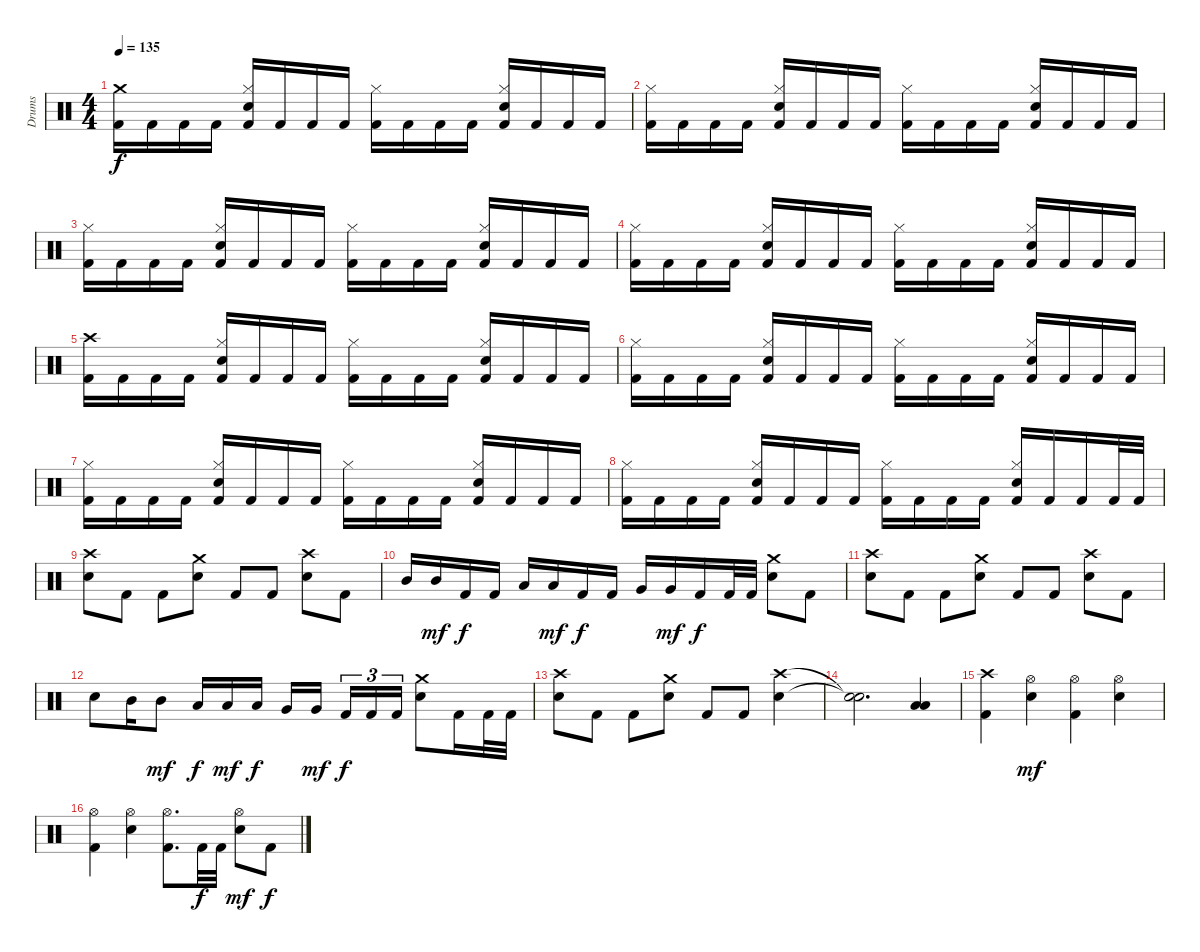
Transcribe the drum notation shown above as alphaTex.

\track ("Drums" "Drums") {instrument percussion}
\staff {score}
\articulation defaults
\ts (4 4)
\tempo 135
\clef neutral
\ks c
("Kick (hit) 2" "Crash medium (hit)").16{dy f} "Kick (hit) 2".16 "Kick (hit) 2".16 "Kick (hit) 2".16 ("Kick (hit) 2" "Hi-Hat (closed)" "Electric Snare (hit)").16 "Kick (hit) 2".16 "Kick (hit) 2".16 "Kick (hit) 2".16 ("Kick (hit) 2" "Hi-Hat (closed)").16 "Kick (hit) 2".16 "Kick (hit) 2".16 "Kick (hit) 2".16 ("Kick (hit) 2" "Hi-Hat (closed)" "Electric Snare (hit)").16 "Kick (hit) 2".16 "Kick (hit) 2".16 "Kick (hit) 2".16 |
("Kick (hit) 2" "Hi-Hat (closed)").16 "Kick (hit) 2".16 "Kick (hit) 2".16 "Kick (hit) 2".16 ("Kick (hit) 2" "Hi-Hat (closed)" "Electric Snare (hit)").16 "Kick (hit) 2".16 "Kick (hit) 2".16 "Kick (hit) 2".16 ("Kick (hit) 2" "Hi-Hat (closed)").16 "Kick (hit) 2".16 "Kick (hit) 2".16 "Kick (hit) 2".16 ("Kick (hit) 2" "Hi-Hat (closed)" "Electric Snare (hit)").16 "Kick (hit) 2".16 "Kick (hit) 2".16 "Kick (hit) 2".16 |
("Kick (hit) 2" "Hi-Hat (closed)").16 "Kick (hit) 2".16 "Kick (hit) 2".16 "Kick (hit) 2".16 ("Kick (hit) 2" "Hi-Hat (closed)" "Electric Snare (hit)").16 "Kick (hit) 2".16 "Kick (hit) 2".16 "Kick (hit) 2".16 ("Kick (hit) 2" "Hi-Hat (closed)").16 "Kick (hit) 2".16 "Kick (hit) 2".16 "Kick (hit) 2".16 ("Kick (hit) 2" "Hi-Hat (closed)" "Electric Snare (hit)").16 "Kick (hit) 2".16 "Kick (hit) 2".16 "Kick (hit) 2".16 |
("Kick (hit) 2" "Hi-Hat (closed)").16 "Kick (hit) 2".16 "Kick (hit) 2".16 "Kick (hit) 2".16 ("Kick (hit) 2" "Hi-Hat (closed)" "Electric Snare (hit)").16 "Kick (hit) 2".16 "Kick (hit) 2".16 "Kick (hit) 2".16 ("Kick (hit) 2" "Hi-Hat (closed)").16 "Kick (hit) 2".16 "Kick (hit) 2".16 "Kick (hit) 2".16 ("Kick (hit) 2" "Hi-Hat (closed)" "Electric Snare (hit)").16 "Kick (hit) 2".16 "Kick (hit) 2".16 "Kick (hit) 2".16 |
("Kick (hit) 2" "Crash high (hit)").16 "Kick (hit) 2".16 "Kick (hit) 2".16 "Kick (hit) 2".16 ("Kick (hit) 2" "Hi-Hat (closed)" "Electric Snare (hit)").16 "Kick (hit) 2".16 "Kick (hit) 2".16 "Kick (hit) 2".16 ("Kick (hit) 2" "Hi-Hat (closed)").16 "Kick (hit) 2".16 "Kick (hit) 2".16 "Kick (hit) 2".16 ("Kick (hit) 2" "Hi-Hat (closed)" "Electric Snare (hit)").16 "Kick (hit) 2".16 "Kick (hit) 2".16 "Kick (hit) 2".16 |
("Kick (hit) 2" "Hi-Hat (closed)").16 "Kick (hit) 2".16 "Kick (hit) 2".16 "Kick (hit) 2".16 ("Kick (hit) 2" "Hi-Hat (closed)" "Electric Snare (hit)").16 "Kick (hit) 2".16 "Kick (hit) 2".16 "Kick (hit) 2".16 ("Kick (hit) 2" "Hi-Hat (closed)").16 "Kick (hit) 2".16 "Kick (hit) 2".16 "Kick (hit) 2".16 ("Kick (hit) 2" "Hi-Hat (closed)" "Electric Snare (hit)").16 "Kick (hit) 2".16 "Kick (hit) 2".16 "Kick (hit) 2".16 |
("Kick (hit) 2" "Hi-Hat (closed)").16 "Kick (hit) 2".16 "Kick (hit) 2".16 "Kick (hit) 2".16 ("Kick (hit) 2" "Hi-Hat (closed)" "Electric Snare (hit)").16 "Kick (hit) 2".16 "Kick (hit) 2".16 "Kick (hit) 2".16 ("Kick (hit) 2" "Hi-Hat (closed)").16 "Kick (hit) 2".16 "Kick (hit) 2".16 "Kick (hit) 2".16 ("Kick (hit) 2" "Hi-Hat (closed)" "Electric Snare (hit)").16 "Kick (hit) 2".16 "Kick (hit) 2".16 "Kick (hit) 2".16 |
("Kick (hit) 2" "Hi-Hat (closed)").16 "Kick (hit) 2".16 "Kick (hit) 2".16 "Kick (hit) 2".16 ("Kick (hit) 2" "Hi-Hat (closed)" "Electric Snare (hit)").16 "Kick (hit) 2".16 "Kick (hit) 2".16 "Kick (hit) 2".16 ("Kick (hit) 2" "Hi-Hat (closed)").16 "Kick (hit) 2".16 "Kick (hit) 2".16 "Kick (hit) 2".16 ("Kick (hit) 2" "Hi-Hat (closed)" "Electric Snare (hit)").16 "Kick (hit) 2".16 "Kick (hit) 2".16 "Kick (hit) 2".32 "Kick (hit) 2".32 |
("Crash high (hit)" "Electric Snare (hit)").8 "Kick (hit) 2".8 "Kick (hit) 2".8 ("Crash medium (hit)" "Electric Snare (hit)").8 "Kick (hit) 2".8 "Kick (hit) 2".8 ("Crash high (hit)" "Electric Snare (hit)").8 "Kick (hit) 2".8 |
"Mid Tom (hit)".16 "Mid Tom (hit)".16{dy mf} "Kick (hit) 2".16{dy f} "Kick (hit) 2".16 "Low Tom (hit)".16 "Low Tom (hit)".16{dy mf} "Kick (hit) 2".16{dy f} "Kick (hit) 2".16 "Very Low Tom (hit)".16 "Very Low Tom (hit)".16{dy mf} "Kick (hit) 2".16{dy f} "Kick (hit) 2".32 "Kick (hit) 2".32 ("Crash medium (hit)" "Electric Snare (hit)").8 "Kick (hit) 2".8 |
("Crash high (hit)" "Electric Snare (hit)").8 "Kick (hit) 2".8 "Kick (hit) 2".8 ("Crash medium (hit)" "Electric Snare (hit)").8 "Kick (hit) 2".8 "Kick (hit) 2".8 ("Crash high (hit)" "Electric Snare (hit)").8 "Kick (hit) 2".8 |
"Electric Snare (hit)".8 "Mid Tom (hit)".16 "Mid Tom (hit)".8{dy mf} "Low Tom (hit)".16{dy f} "Low Tom (hit)".16{dy mf} "Low Tom (hit)".16{dy f} "Very Low Tom (hit)".16 "Very Low Tom (hit)".16{dy mf beam splitsecondary} "Kick (hit) 2".16{tu (3 2) dy f} "Kick (hit) 2".16{tu (3 2)} "Kick (hit) 2".16{tu (3 2)} ("Crash medium (hit)" "Electric Snare (hit)").8 "Kick (hit) 2".16 "Kick (hit) 2".32 "Kick (hit) 2".32 |
("Crash high (hit)" "Electric Snare (hit)").8 "Kick (hit) 2".8 "Kick (hit) 2".8 ("Crash medium (hit)" "Electric Snare (hit)").8 "Kick (hit) 2".8 "Kick (hit) 2".8 ("Crash high (hit)" "Electric Snare (hit)").4 |
("Snare (hit)"{t} "Snare (hit)"{t}).2{d} ("Low Floor Tom (hit)" "Low Tom (hit)").4 |
("Kick (hit) 2" "Crash high (hit)").4 ("Hi-Hat (open)" "Electric Snare (hit)").4{dy mf} ("Kick (hit) 2" "Hi-Hat (open)").4 ("Hi-Hat (open)" "Electric Snare (hit)").4 |
("Kick (hit) 2" "Hi-Hat (open)").4 ("Hi-Hat (open)" "Electric Snare (hit)").4 ("Kick (hit) 2" "Hi-Hat (open)").8{d} "Kick (hit) 2".32{dy f} "Kick (hit) 2".32 ("Hi-Hat (open)" "Electric Snare (hit)").8{dy mf} "Kick (hit) 2".8{dy f}
